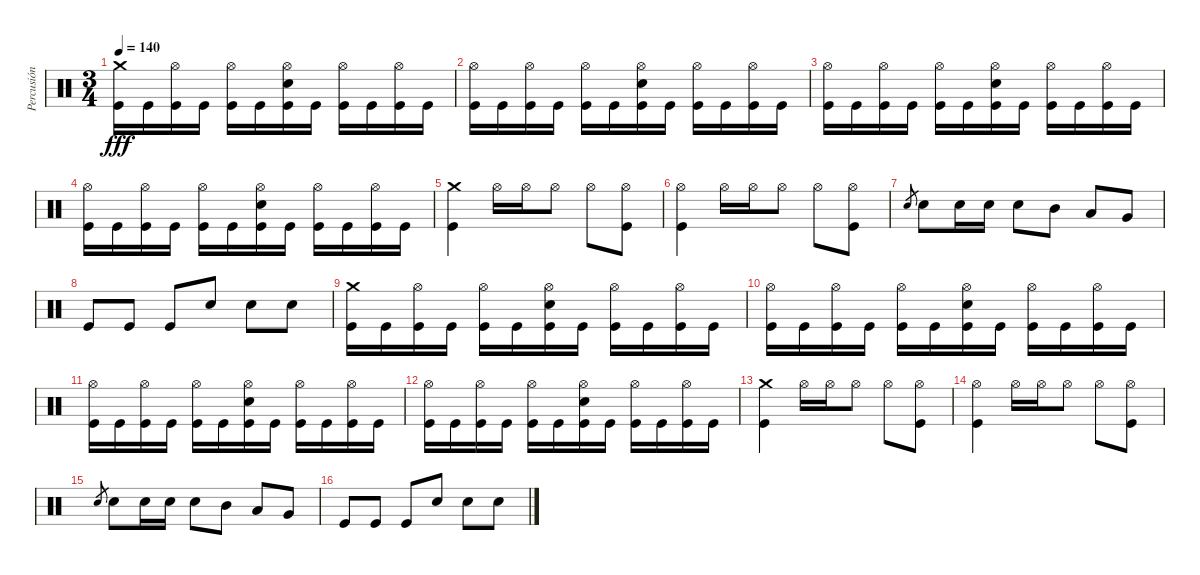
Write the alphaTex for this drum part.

\track ("Percusión" "Percusión") {instrument percussion}
\staff {score}
\articulation defaults
\ts (3 4)
\tempo 140
\clef neutral
\ks c
("Crash medium (hit)" "Kick (hit)").16{dy fff} "Kick (hit)".16 ("Hi-Hat (open)" "Kick (hit)").16 "Kick (hit)".16 ("Hi-Hat (open)" "Kick (hit)").16 "Kick (hit)".16 ("Hi-Hat (open)" "Snare (hit) 2" "Kick (hit)").16 "Kick (hit)".16 ("Hi-Hat (open)" "Kick (hit)").16 "Kick (hit)".16 ("Hi-Hat (open)" "Kick (hit)").16 "Kick (hit)".16 |
("Hi-Hat (open)" "Kick (hit)").16 "Kick (hit)".16 ("Hi-Hat (open)" "Kick (hit)").16 "Kick (hit)".16 ("Hi-Hat (open)" "Kick (hit)").16 "Kick (hit)".16 ("Hi-Hat (open)" "Snare (hit) 2" "Kick (hit)").16 "Kick (hit)".16 ("Hi-Hat (open)" "Kick (hit)").16 "Kick (hit)".16 ("Hi-Hat (open)" "Kick (hit)").16 "Kick (hit)".16 |
("Hi-Hat (open)" "Kick (hit)").16 "Kick (hit)".16 ("Hi-Hat (open)" "Kick (hit)").16 "Kick (hit)".16 ("Hi-Hat (open)" "Kick (hit)").16 "Kick (hit)".16 ("Hi-Hat (open)" "Snare (hit) 2" "Kick (hit)").16 "Kick (hit)".16 ("Hi-Hat (open)" "Kick (hit)").16 "Kick (hit)".16 ("Hi-Hat (open)" "Kick (hit)").16 "Kick (hit)".16 |
("Hi-Hat (open)" "Kick (hit)").16 "Kick (hit)".16 ("Hi-Hat (open)" "Kick (hit)").16 "Kick (hit)".16 ("Hi-Hat (open)" "Kick (hit)").16 "Kick (hit)".16 ("Hi-Hat (open)" "Snare (hit) 2" "Kick (hit)").16 "Kick (hit)".16 ("Hi-Hat (open)" "Kick (hit)").16 "Kick (hit)".16 ("Hi-Hat (open)" "Kick (hit)").16 "Kick (hit)".16 |
("Crash medium (hit)" "Kick (hit)").4 "Hi-Hat (open)".16 "Hi-Hat (open)".16 "Hi-Hat (open)".8 "Hi-Hat (open)".8 ("Hi-Hat (open)" "Kick (hit)").8 |
("Hi-Hat (open)" "Kick (hit)").4 "Hi-Hat (open)".16 "Hi-Hat (open)".16 "Hi-Hat (open)".8 "Hi-Hat (open)".8 ("Hi-Hat (open)" "Kick (hit)").8 |
"Snare (hit) 2".8{gr} "Snare (hit) 2".8 "Snare (hit) 2".16 "Snare (hit) 2".16 "Snare (hit) 2".8 "Mid Tom (hit)".8 "Low Tom (hit)".8 "Very Low Tom (hit)".8 |
"Kick (hit)".8 "Kick (hit)".8 "Kick (hit)".8 "Snare (hit) 2".8 "Snare (hit) 2".8 "Snare (hit) 2".8 |
("Crash medium (hit)" "Kick (hit)").16 "Kick (hit)".16 ("Hi-Hat (open)" "Kick (hit)").16 "Kick (hit)".16 ("Hi-Hat (open)" "Kick (hit)").16 "Kick (hit)".16 ("Hi-Hat (open)" "Snare (hit) 2" "Kick (hit)").16 "Kick (hit)".16 ("Hi-Hat (open)" "Kick (hit)").16 "Kick (hit)".16 ("Hi-Hat (open)" "Kick (hit)").16 "Kick (hit)".16 |
("Hi-Hat (open)" "Kick (hit)").16 "Kick (hit)".16 ("Hi-Hat (open)" "Kick (hit)").16 "Kick (hit)".16 ("Hi-Hat (open)" "Kick (hit)").16 "Kick (hit)".16 ("Hi-Hat (open)" "Snare (hit) 2" "Kick (hit)").16 "Kick (hit)".16 ("Hi-Hat (open)" "Kick (hit)").16 "Kick (hit)".16 ("Hi-Hat (open)" "Kick (hit)").16 "Kick (hit)".16 |
("Hi-Hat (open)" "Kick (hit)").16 "Kick (hit)".16 ("Hi-Hat (open)" "Kick (hit)").16 "Kick (hit)".16 ("Hi-Hat (open)" "Kick (hit)").16 "Kick (hit)".16 ("Hi-Hat (open)" "Snare (hit) 2" "Kick (hit)").16 "Kick (hit)".16 ("Hi-Hat (open)" "Kick (hit)").16 "Kick (hit)".16 ("Hi-Hat (open)" "Kick (hit)").16 "Kick (hit)".16 |
("Hi-Hat (open)" "Kick (hit)").16 "Kick (hit)".16 ("Hi-Hat (open)" "Kick (hit)").16 "Kick (hit)".16 ("Hi-Hat (open)" "Kick (hit)").16 "Kick (hit)".16 ("Hi-Hat (open)" "Snare (hit) 2" "Kick (hit)").16 "Kick (hit)".16 ("Hi-Hat (open)" "Kick (hit)").16 "Kick (hit)".16 ("Hi-Hat (open)" "Kick (hit)").16 "Kick (hit)".16 |
("Crash medium (hit)" "Kick (hit)").4 "Hi-Hat (open)".16 "Hi-Hat (open)".16 "Hi-Hat (open)".8 "Hi-Hat (open)".8 ("Hi-Hat (open)" "Kick (hit)").8 |
("Hi-Hat (open)" "Kick (hit)").4 "Hi-Hat (open)".16 "Hi-Hat (open)".16 "Hi-Hat (open)".8 "Hi-Hat (open)".8 ("Hi-Hat (open)" "Kick (hit)").8 |
"Snare (hit) 2".8{gr} "Snare (hit) 2".8 "Snare (hit) 2".16 "Snare (hit) 2".16 "Snare (hit) 2".8 "Mid Tom (hit)".8 "Low Tom (hit)".8 "Very Low Tom (hit)".8 |
"Kick (hit)".8 "Kick (hit)".8 "Kick (hit)".8 "Snare (hit) 2".8 "Snare (hit) 2".8 "Snare (hit) 2".8
